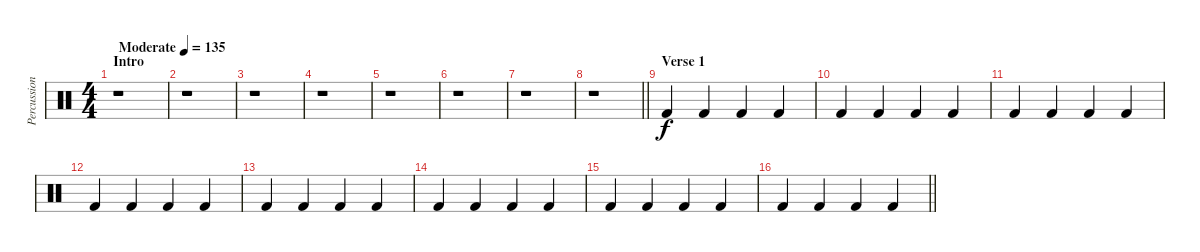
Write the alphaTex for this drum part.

\track ("Percussion" "Percussion") {instrument percussion}
\staff {score}
\articulation defaults
\ts (4 4)
\section ("" "Intro")
\tempo (135 "Moderate")
\clef neutral
\ks c
r.1{dy f} |
r.1 |
r.1 |
r.1 |
r.1 |
r.1 |
r.1 |
\barLineRight lightlight
r.1 |
\section ("" "Verse 1")
"Kick (hit) 2".4 "Kick (hit) 2".4 "Kick (hit) 2".4 "Kick (hit) 2".4 |
"Kick (hit) 2".4 "Kick (hit) 2".4 "Kick (hit) 2".4 "Kick (hit) 2".4 |
"Kick (hit) 2".4 "Kick (hit) 2".4 "Kick (hit) 2".4 "Kick (hit) 2".4 |
"Kick (hit) 2".4 "Kick (hit) 2".4 "Kick (hit) 2".4 "Kick (hit) 2".4 |
"Kick (hit) 2".4 "Kick (hit) 2".4 "Kick (hit) 2".4 "Kick (hit) 2".4 |
"Kick (hit) 2".4 "Kick (hit) 2".4 "Kick (hit) 2".4 "Kick (hit) 2".4 |
"Kick (hit) 2".4 "Kick (hit) 2".4 "Kick (hit) 2".4 "Kick (hit) 2".4 |
\barLineRight lightlight "Kick (hit) 2".4 "Kick (hit) 2".4 "Kick (hit) 2".4 "Kick (hit) 2".4
